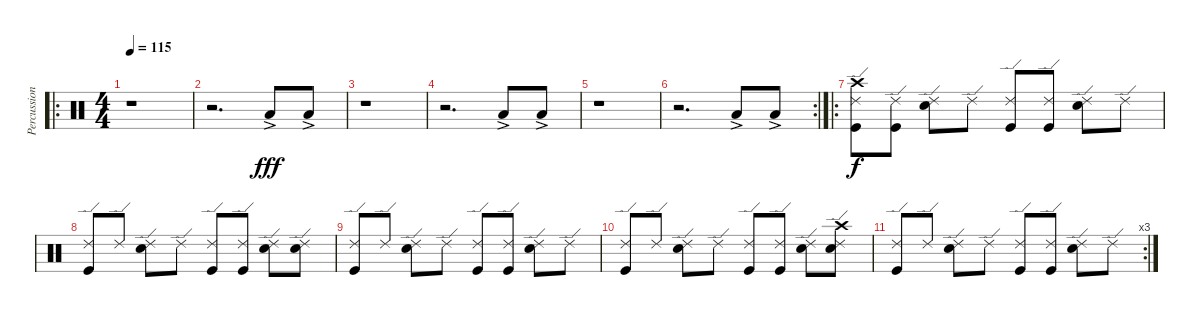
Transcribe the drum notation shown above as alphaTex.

\track ("Percussions" "Percussion") {instrument percussion}
\staff {score}
\articulation defaults
\ro
\ts (4 4)
\tempo 115
\clef neutral
\ks c
r.1{dy f} |
r.2{d} "Low Floor Tom (hit)"{ac}.8{dy fff} "Low Floor Tom (hit)"{ac}.8 |
r.1 |
r.2{d} "Low Floor Tom (hit)"{ac}.8 "Low Floor Tom (hit)"{ac}.8 |
r.1 |
\rc 2
r.2{d} "Low Floor Tom (hit)"{ac}.8 "Low Floor Tom (hit)"{ac}.8 |
\ro
("Crash high (hit)" "Ride (edge) 2" "Kick (hit)").8{dy f} ("Ride (edge) 2" "Kick (hit)").8 ("Ride (edge) 2" "Snare (hit) 2").8 "Ride (edge) 2".8 ("Ride (edge) 2" "Kick (hit)").8 ("Ride (edge) 2" "Kick (hit)").8 ("Ride (edge) 2" "Snare (hit) 2").8 "Ride (edge) 2".8 |
("Ride (edge) 2" "Kick (hit)").8 "Ride (edge) 2".8 ("Ride (edge) 2" "Snare (hit) 2").8 "Ride (edge) 2".8 ("Ride (edge) 2" "Kick (hit)").8 ("Ride (edge) 2" "Kick (hit)").8 ("Ride (edge) 2" "Snare (hit) 2").8 ("Ride (edge) 2" "Snare (hit) 2").8 |
("Ride (edge) 2" "Kick (hit)").8 "Ride (edge) 2".8 ("Ride (edge) 2" "Snare (hit) 2").8 "Ride (edge) 2".8 ("Ride (edge) 2" "Kick (hit)").8 ("Ride (edge) 2" "Kick (hit)").8 ("Ride (edge) 2" "Snare (hit) 2").8 "Ride (edge) 2".8 |
("Ride (edge) 2" "Kick (hit)").8 "Ride (edge) 2".8 ("Ride (edge) 2" "Snare (hit) 2").8 "Ride (edge) 2".8 ("Ride (edge) 2" "Kick (hit)").8 ("Ride (edge) 2" "Kick (hit)").8 ("Ride (edge) 2" "Snare (hit) 2").8 ("Crash high (hit)" "Ride (edge) 2" "Snare (hit) 2").8 |
\rc 3
("Ride (edge) 2" "Kick (hit)").8 "Ride (edge) 2".8 ("Ride (edge) 2" "Snare (hit) 2").8 "Ride (edge) 2".8 ("Ride (edge) 2" "Kick (hit)").8 ("Ride (edge) 2" "Kick (hit)").8 ("Ride (edge) 2" "Snare (hit) 2").8 "Ride (edge) 2".8
